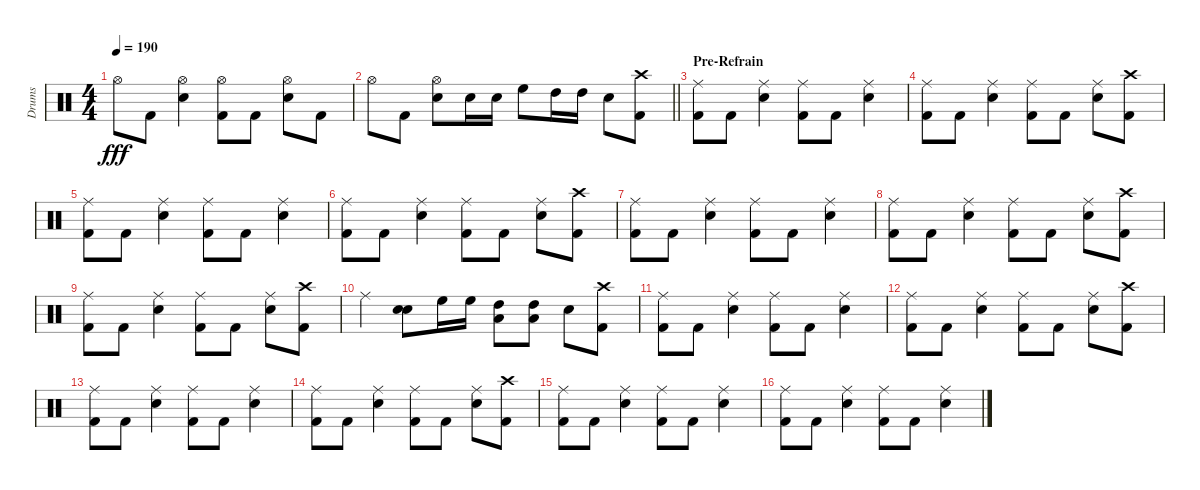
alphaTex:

\track ("Drums" "Drums") {instrument percussion}
\staff {score}
\articulation defaults
\ts (4 4)
\tempo 190
\clef neutral
\ks c "Hi-Hat (open)".8{dy fff} "Kick (hit) 2".8
("Electric Snare (hit)" "Hi-Hat (open)").4 ("Kick (hit) 2" "Hi-Hat (open)").8 "Kick (hit) 2".8 ("Electric Snare (hit)" "Hi-Hat (open)").8 "Kick (hit) 2".8 |
\barLineRight lightlight "Hi-Hat (open)".8 "Kick (hit) 2".8
("Electric Snare (hit)" "Hi-Hat (open)").8 "Electric Snare (hit)".16 "Electric Snare (hit)".16 "High Floor Tom (hit)".8 "High Tom (hit)".16 "High Tom (hit)".16 "Electric Snare (hit)".8 ("Kick (hit) 2" "Crash high (hit)").8 |
\section ("" "Pre-Refrain")
("Kick (hit) 2" "Ride (middle)").8 "Kick (hit) 2".8 ("Electric Snare (hit)" "Ride (middle)").4 ("Kick (hit) 2" "Ride (middle)").8 "Kick (hit) 2".8 ("Electric Snare (hit)" "Ride (middle)").4 |
("Kick (hit) 2" "Ride (middle)").8 "Kick (hit) 2".8 ("Electric Snare (hit)" "Ride (middle)").4 ("Kick (hit) 2" "Ride (middle)").8 "Kick (hit) 2".8 ("Electric Snare (hit)" "Ride (middle)").8 ("Kick (hit) 2" "Crash high (hit)").8 |
("Kick (hit) 2" "Ride (middle)").8 "Kick (hit) 2".8 ("Electric Snare (hit)" "Ride (middle)").4 ("Kick (hit) 2" "Ride (middle)").8 "Kick (hit) 2".8 ("Electric Snare (hit)" "Ride (middle)").4 |
("Kick (hit) 2" "Ride (middle)").8 "Kick (hit) 2".8 ("Electric Snare (hit)" "Ride (middle)").4 ("Kick (hit) 2" "Ride (middle)").8 "Kick (hit) 2".8 ("Electric Snare (hit)" "Ride (middle)").8 ("Kick (hit) 2" "Crash high (hit)").8 |
("Kick (hit) 2" "Ride (middle)").8 "Kick (hit) 2".8 ("Electric Snare (hit)" "Ride (middle)").4 ("Kick (hit) 2" "Ride (middle)").8 "Kick (hit) 2".8 ("Electric Snare (hit)" "Ride (middle)").4 |
("Kick (hit) 2" "Ride (middle)").8 "Kick (hit) 2".8 ("Electric Snare (hit)" "Ride (middle)").4 ("Kick (hit) 2" "Ride (middle)").8 "Kick (hit) 2".8 ("Electric Snare (hit)" "Ride (middle)").8 ("Kick (hit) 2" "Crash high (hit)").8 |
("Kick (hit) 2" "Ride (middle)").8 "Kick (hit) 2".8 ("Electric Snare (hit)" "Ride (middle)").4 ("Kick (hit) 2" "Ride (middle)").8 "Kick (hit) 2".8 ("Electric Snare (hit)" "Ride (middle)").8 ("Kick (hit) 2" "Crash high (hit)").8 |
"Ride (middle)".4 ("Electric Snare (hit)" "Electric Snare (hit)").8 "High Floor Tom (hit)".16 "High Floor Tom (hit)".16 ("High Tom (hit)" "Low Tom (hit)").8 ("High Tom (hit)" "Low Tom (hit)").8 "Electric Snare (hit)".8 ("Kick (hit) 2" "Crash high (hit)").8 |
("Kick (hit) 2" "Ride (middle)").8 "Kick (hit) 2".8 ("Electric Snare (hit)" "Ride (middle)").4 ("Kick (hit) 2" "Ride (middle)").8 "Kick (hit) 2".8 ("Electric Snare (hit)" "Ride (middle)").4 |
("Kick (hit) 2" "Ride (middle)").8 "Kick (hit) 2".8 ("Electric Snare (hit)" "Ride (middle)").4 ("Kick (hit) 2" "Ride (middle)").8 "Kick (hit) 2".8 ("Electric Snare (hit)" "Ride (middle)").8 ("Kick (hit) 2" "Crash high (hit)").8 |
("Kick (hit) 2" "Ride (middle)").8 "Kick (hit) 2".8 ("Electric Snare (hit)" "Ride (middle)").4 ("Kick (hit) 2" "Ride (middle)").8 "Kick (hit) 2".8 ("Electric Snare (hit)" "Ride (middle)").4 |
("Kick (hit) 2" "Ride (middle)").8 "Kick (hit) 2".8 ("Electric Snare (hit)" "Ride (middle)").4 ("Kick (hit) 2" "Ride (middle)").8 "Kick (hit) 2".8 ("Electric Snare (hit)" "Ride (middle)").8 ("Kick (hit) 2" "Crash high (hit)").8 |
("Kick (hit) 2" "Ride (middle)").8 "Kick (hit) 2".8 ("Electric Snare (hit)" "Ride (middle)").4 ("Kick (hit) 2" "Ride (middle)").8 "Kick (hit) 2".8 ("Electric Snare (hit)" "Ride (middle)").4 |
("Kick (hit) 2" "Ride (middle)").8 "Kick (hit) 2".8 ("Electric Snare (hit)" "Ride (middle)").4 ("Kick (hit) 2" "Ride (middle)").8 "Kick (hit) 2".8 ("Electric Snare (hit)" "Ride (middle)").4
